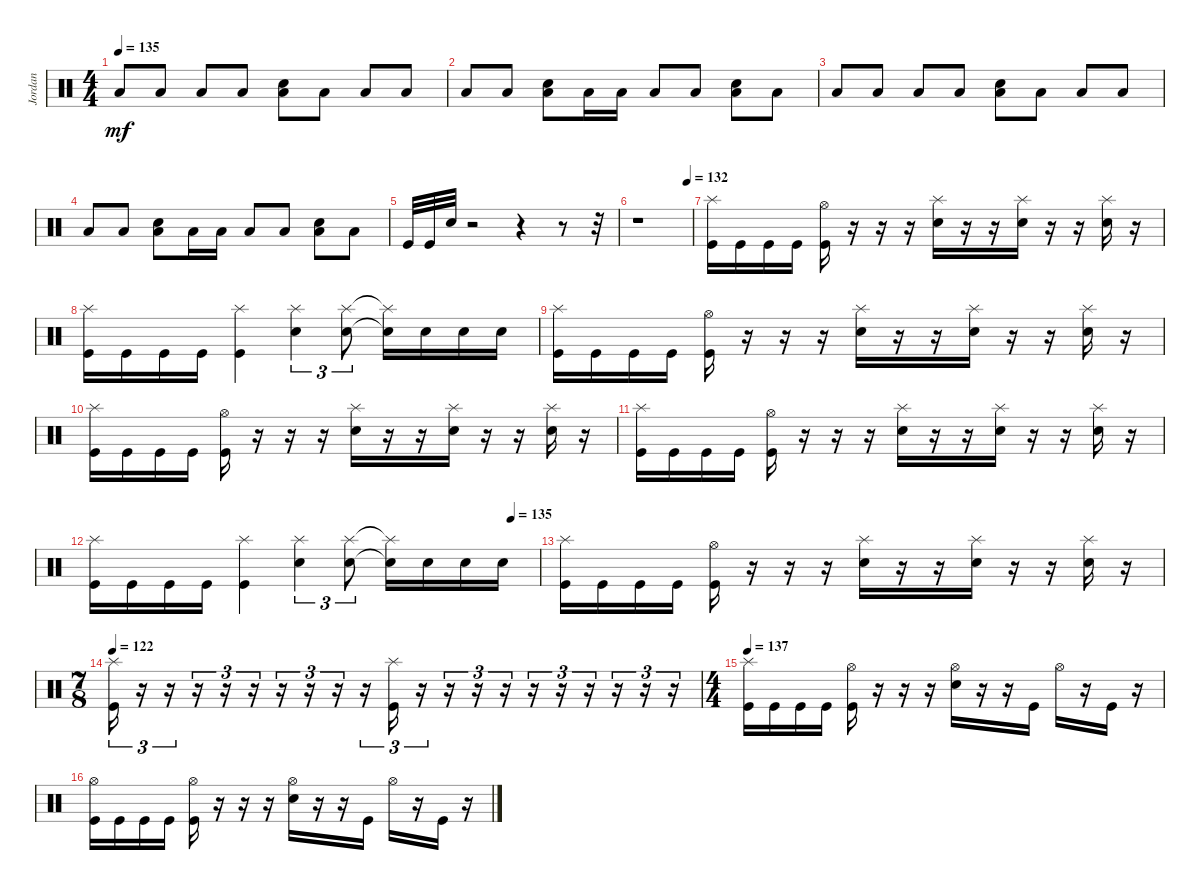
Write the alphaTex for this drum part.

\track ("Jordan" "Jordan") {instrument percussion}
\staff {score}
\articulation defaults
\ts (4 4)
\tempo 135
\clef neutral
\ks c "Low Floor Tom (hit)".8{dy mf} "Low Floor Tom (hit)".8 "Low Floor Tom (hit)".8 "Low Floor Tom (hit)".8
("Snare (hit) 2" "Low Floor Tom (hit)").8 "Low Floor Tom (hit)".8 "Low Floor Tom (hit)".8 "Low Floor Tom (hit)".8 |
"Low Floor Tom (hit)".8 "Low Floor Tom (hit)".8 ("Low Floor Tom (hit)" "Snare (hit) 2").8 "Low Floor Tom (hit)".16 "Low Floor Tom (hit)".16 "Low Floor Tom (hit)".8 "Low Floor Tom (hit)".8 ("Low Floor Tom (hit)" "Snare (hit) 2").8 "Low Floor Tom (hit)".8 |
"Low Floor Tom (hit)".8 "Low Floor Tom (hit)".8 "Low Floor Tom (hit)".8 "Low Floor Tom (hit)".8 ("Snare (hit) 2" "Low Floor Tom (hit)").8 "Low Floor Tom (hit)".8 "Low Floor Tom (hit)".8 "Low Floor Tom (hit)".8 |
"Low Floor Tom (hit)".8 "Low Floor Tom (hit)".8 ("Low Floor Tom (hit)" "Snare (hit) 2").8 "Low Floor Tom (hit)".16 "Low Floor Tom (hit)".16 "Low Floor Tom (hit)".8 "Low Floor Tom (hit)".8 ("Low Floor Tom (hit)" "Snare (hit) 2").8 "Low Floor Tom (hit)".8 |
"Kick (hit)".32 "Kick (hit)".32 "Snare (hit) 2".32 r.2 r.4 r.8 r.32 |
\tempo (132 0.9166666666666666)
r.1 |
("Kick (hit)" "Splash (hit)").16 "Kick (hit)".16 "Kick (hit)".16 "Kick (hit)".16 ("Kick (hit)" "Hi-Hat (open)").16 r.16 r.16 r.16 ("Snare (hit) 2" "Splash (hit)").16 r.16 r.16 ("Snare (hit) 2" "Splash (hit)").16 r.16 r.16 ("Snare (hit) 2" "Splash (hit)").16 r.16 |
("Kick (hit)" "Splash (hit)").16 "Kick (hit)".16 "Kick (hit)".16 "Kick (hit)".16 ("Kick (hit)" "Splash (hit)").4 ("Snare (hit) 2" "Splash (hit)").4{tu (3 2)} ("Snare (hit) 2" "Splash (hit)").8{tu (3 2)} ("Snare (hit) 2"{t} "Splash (hit)"{t}).16 "Snare (hit) 2".16 "Snare (hit) 2".16 "Snare (hit) 2".16 |
("Kick (hit)" "Splash (hit)").16 "Kick (hit)".16 "Kick (hit)".16 "Kick (hit)".16 ("Kick (hit)" "Hi-Hat (open)").16 r.16 r.16 r.16 ("Snare (hit) 2" "Splash (hit)").16 r.16 r.16 ("Snare (hit) 2" "Splash (hit)").16 r.16 r.16 ("Snare (hit) 2" "Splash (hit)").16 r.16 |
("Kick (hit)" "Splash (hit)").16 "Kick (hit)".16 "Kick (hit)".16 "Kick (hit)".16 ("Kick (hit)" "Hi-Hat (open)").16 r.16 r.16 r.16 ("Snare (hit) 2" "Splash (hit)").16 r.16 r.16 ("Snare (hit) 2" "Splash (hit)").16 r.16 r.16 ("Snare (hit) 2" "Splash (hit)").16 r.16 |
("Kick (hit)" "Splash (hit)").16 "Kick (hit)".16 "Kick (hit)".16 "Kick (hit)".16 ("Kick (hit)" "Hi-Hat (open)").16 r.16 r.16 r.16 ("Snare (hit) 2" "Splash (hit)").16 r.16 r.16 ("Snare (hit) 2" "Splash (hit)").16 r.16 r.16 ("Snare (hit) 2" "Splash (hit)").16 r.16 |
\tempo (135 0.9375)
("Kick (hit)" "Splash (hit)").16 "Kick (hit)".16 "Kick (hit)".16 "Kick (hit)".16 ("Kick (hit)" "Splash (hit)").4 ("Snare (hit) 2" "Splash (hit)").4{tu (3 2)} ("Snare (hit) 2" "Splash (hit)").8{tu (3 2)} ("Snare (hit) 2"{t} "Splash (hit)"{t}).16 "Snare (hit) 2".16 "Snare (hit) 2".16 "Snare (hit) 2".16 |
("Kick (hit)" "Splash (hit)").16 "Kick (hit)".16 "Kick (hit)".16 "Kick (hit)".16 ("Kick (hit)" "Hi-Hat (open)").16 r.16 r.16 r.16 ("Snare (hit) 2" "Splash (hit)").16 r.16 r.16 ("Snare (hit) 2" "Splash (hit)").16 r.16 r.16 ("Snare (hit) 2" "Splash (hit)").16 r.16 |
\ts (7 8)
\tempo 122
("Kick (hit)" "Splash (hit)").16{tu (3 2)} r.16{tu (3 2)} r.16{tu (3 2)} r.16{tu (3 2)} r.16{tu (3 2)} r.16{tu (3 2)} r.16{tu (3 2)} r.16{tu (3 2)} r.16{tu (3 2)} r.16{tu (3 2)} ("Kick (hit)" "Splash (hit)").16{tu (3 2)} r.16{tu (3 2)} r.16{tu (3 2)} r.16{tu (3 2)} r.16{tu (3 2)} r.16{tu (3 2)} r.16{tu (3 2)} r.16{tu (3 2)} r.16{tu (3 2)} r.16{tu (3 2)} r.16{tu (3 2)} |
\ts (4 4)
\tempo 137
("Kick (hit)" "Splash (hit)").16 "Kick (hit)".16 "Kick (hit)".16 "Kick (hit)".16 ("Kick (hit)" "Hi-Hat (open)").16 r.16 r.16 r.16 ("Snare (hit) 2" "Hi-Hat (open)").16 r.16 r.16 "Kick (hit)".16 "Hi-Hat (open)".16 r.16 "Kick (hit)".16 r.16 |
("Kick (hit)" "Hi-Hat (open)").16 "Kick (hit)".16 "Kick (hit)".16 "Kick (hit)".16 ("Kick (hit)" "Hi-Hat (open)").16 r.16 r.16 r.16 ("Snare (hit) 2" "Hi-Hat (open)").16 r.16 r.16 "Kick (hit)".16 "Hi-Hat (open)".16 r.16 "Kick (hit)".16 r.16
